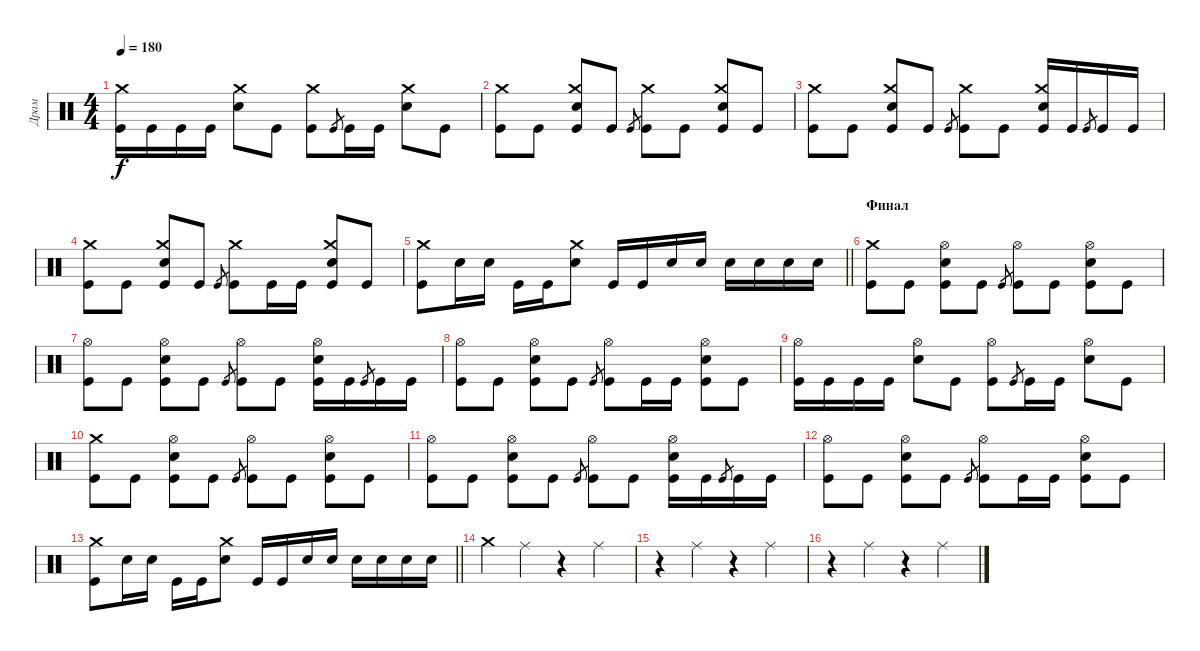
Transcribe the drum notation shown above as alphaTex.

\track ("Драм" "Драм") {instrument percussion}
\staff {score}
\articulation defaults
\ts (4 4)
\tempo 180
\clef neutral
\ks c
("Kick (hit)" "Crash medium (hit)").16{dy f} "Kick (hit)".16 "Kick (hit)".16 "Kick (hit)".16 ("Electric Snare (hit)" "Crash medium (hit)").8 "Kick (hit)".8 ("Kick (hit)" "Crash medium (hit)").8 "Kick (hit)".8{gr} "Kick (hit)".16 "Kick (hit)".16 ("Electric Snare (hit)" "Crash medium (hit)").8 "Kick (hit)".8 |
("Kick (hit)" "Crash medium (hit)").8 "Kick (hit)".8 ("Kick (hit)" "Electric Snare (hit)" "Crash medium (hit)").8 "Kick (hit)".8 "Kick (hit)".8{gr} ("Kick (hit)" "Crash medium (hit)").8 "Kick (hit)".8 ("Kick (hit)" "Electric Snare (hit)" "Crash medium (hit)").8 "Kick (hit)".8 |
("Kick (hit)" "Crash medium (hit)").8 "Kick (hit)".8 ("Kick (hit)" "Electric Snare (hit)" "Crash medium (hit)").8 "Kick (hit)".8 "Kick (hit)".8{gr} ("Kick (hit)" "Crash medium (hit)").8 "Kick (hit)".8 ("Kick (hit)" "Electric Snare (hit)" "Crash medium (hit)").16 "Kick (hit)".16 "Kick (hit)".8{gr} "Kick (hit)".16 "Kick (hit)".16 |
("Kick (hit)" "Crash medium (hit)").8 "Kick (hit)".8 ("Kick (hit)" "Electric Snare (hit)" "Crash medium (hit)").8 "Kick (hit)".8 "Kick (hit)".8{gr} ("Kick (hit)" "Crash medium (hit)").8 "Kick (hit)".16 "Kick (hit)".16 ("Kick (hit)" "Electric Snare (hit)" "Crash medium (hit)").8 "Kick (hit)".8 |
\barLineRight lightlight
("Kick (hit)" "Crash medium (hit)").8 "Electric Snare (hit)".16 "Electric Snare (hit)".16 "Kick (hit)".16 "Kick (hit)".16 ("Electric Snare (hit)" "Crash medium (hit)").8 "Kick (hit)".16 "Kick (hit)".16 "Electric Snare (hit)".16 "Electric Snare (hit)".16 "Electric Snare (hit)".16 "Electric Snare (hit)".16 "Electric Snare (hit)".16 "Electric Snare (hit)".16 |
\section ("" "Финал")
("Kick (hit)" "Crash medium (hit)").8 "Kick (hit)".8 ("Kick (hit)" "Electric Snare (hit)" "Hi-Hat (open)").8 "Kick (hit)".8 "Kick (hit)".8{gr} ("Kick (hit)" "Hi-Hat (open)").8 "Kick (hit)".8 ("Kick (hit)" "Electric Snare (hit)" "Hi-Hat (open)").8 "Kick (hit)".8 |
("Kick (hit)" "Hi-Hat (open)").8 "Kick (hit)".8 ("Kick (hit)" "Electric Snare (hit)" "Hi-Hat (open)").8 "Kick (hit)".8 "Kick (hit)".8{gr} ("Kick (hit)" "Hi-Hat (open)").8 "Kick (hit)".8 ("Kick (hit)" "Electric Snare (hit)" "Hi-Hat (open)").16 "Kick (hit)".16 "Kick (hit)".8{gr} "Kick (hit)".16 "Kick (hit)".16 |
("Kick (hit)" "Hi-Hat (open)").8 "Kick (hit)".8 ("Kick (hit)" "Electric Snare (hit)" "Hi-Hat (open)").8 "Kick (hit)".8 "Kick (hit)".8{gr} ("Kick (hit)" "Hi-Hat (open)").8 "Kick (hit)".16 "Kick (hit)".16 ("Kick (hit)" "Electric Snare (hit)" "Hi-Hat (open)").8 "Kick (hit)".8 |
("Kick (hit)" "Hi-Hat (open)").16 "Kick (hit)".16 "Kick (hit)".16 "Kick (hit)".16 ("Electric Snare (hit)" "Hi-Hat (open)").8 "Kick (hit)".8 ("Kick (hit)" "Hi-Hat (open)").8 "Kick (hit)".8{gr} "Kick (hit)".16 "Kick (hit)".16 ("Electric Snare (hit)" "Hi-Hat (open)").8 "Kick (hit)".8 |
("Kick (hit)" "Crash medium (hit)").8 "Kick (hit)".8 ("Kick (hit)" "Electric Snare (hit)" "Hi-Hat (open)").8 "Kick (hit)".8 "Kick (hit)".8{gr} ("Kick (hit)" "Hi-Hat (open)").8 "Kick (hit)".8 ("Kick (hit)" "Electric Snare (hit)" "Hi-Hat (open)").8 "Kick (hit)".8 |
("Kick (hit)" "Hi-Hat (open)").8 "Kick (hit)".8 ("Kick (hit)" "Electric Snare (hit)" "Hi-Hat (open)").8 "Kick (hit)".8 "Kick (hit)".8{gr} ("Kick (hit)" "Hi-Hat (open)").8 "Kick (hit)".8 ("Kick (hit)" "Electric Snare (hit)" "Hi-Hat (open)").16 "Kick (hit)".16 "Kick (hit)".8{gr} "Kick (hit)".16 "Kick (hit)".16 |
("Kick (hit)" "Hi-Hat (open)").8 "Kick (hit)".8 ("Kick (hit)" "Electric Snare (hit)" "Hi-Hat (open)").8 "Kick (hit)".8 "Kick (hit)".8{gr} ("Kick (hit)" "Hi-Hat (open)").8 "Kick (hit)".16 "Kick (hit)".16 ("Kick (hit)" "Electric Snare (hit)" "Hi-Hat (open)").8 "Kick (hit)".8 |
\barLineRight lightlight
("Kick (hit)" "Crash medium (hit)").8 "Electric Snare (hit)".16 "Electric Snare (hit)".16 "Kick (hit)".16 "Kick (hit)".16 ("Electric Snare (hit)" "Crash medium (hit)").8 "Kick (hit)".16 "Kick (hit)".16 "Electric Snare (hit)".16 "Electric Snare (hit)".16 "Electric Snare (hit)".16 "Electric Snare (hit)".16 "Electric Snare (hit)".16 "Electric Snare (hit)".16 |
"Crash medium (hit)".4 "Ride (middle)".4 r.4 "Ride (middle)".4 |
r.4 "Ride (middle)".4 r.4 "Ride (middle)".4 |
r.4 "Ride (middle)".4 r.4 "Ride (middle)".4
